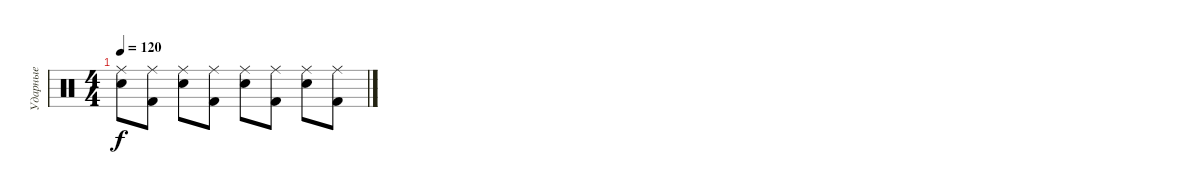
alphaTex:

\track ("Ударные" "Ударные") {instrument percussion}
\staff {score}
\articulation defaults
\ts (4 4)
\tempo 120
\clef neutral
\ks c
("Ride (middle)" "Snare (hit) 2").8{dy f} ("Ride (middle)" "Kick (hit) 2").8 ("Ride (middle)" "Snare (hit) 2").8 ("Ride (middle)" "Kick (hit) 2").8 ("Ride (middle)" "Snare (hit) 2").8 ("Ride (middle)" "Kick (hit) 2").8 ("Ride (middle)" "Snare (hit) 2").8 ("Ride (middle)" "Kick (hit) 2").8
